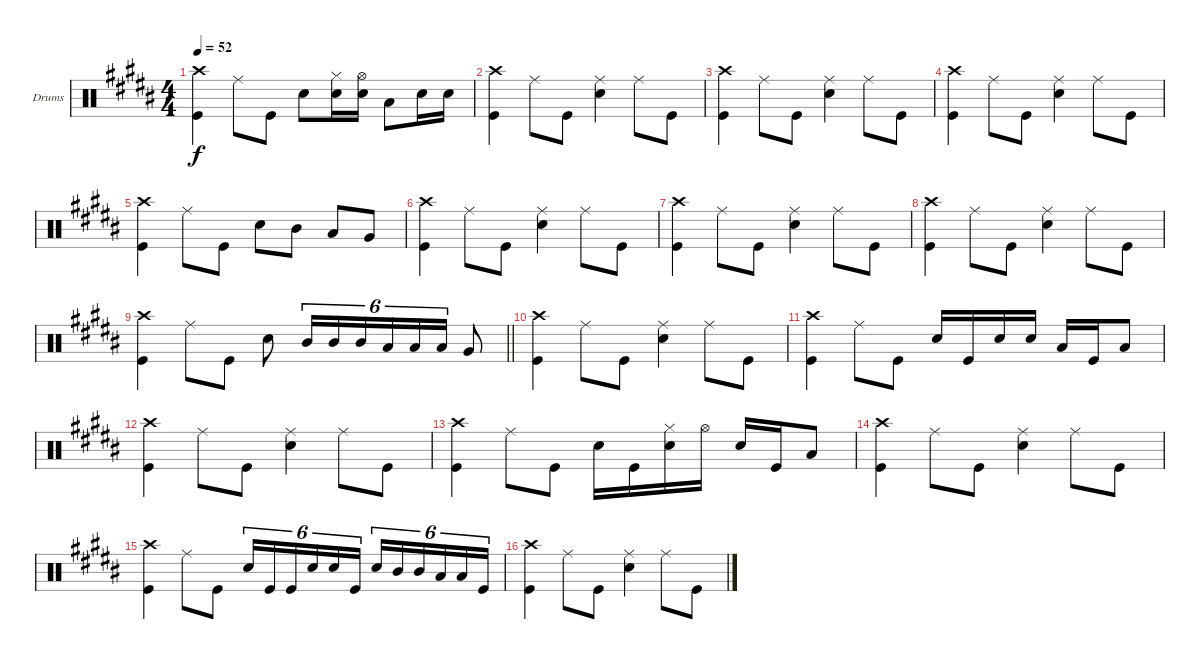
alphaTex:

\bracketExtendMode groupsimilarinstruments
\firstSystemTrackNameOrientation horizontal
\otherSystemsTrackNameOrientation horizontal
\track ("Drumkit" "Drums") {solo instrument percussion}
\staff {score}
\articulation defaults
\ts (4 4)
\tempo 52
\clef neutral
\ks g#minor
("Crash high (hit)" "Kick (hit)").4{dy f} "Ride (middle)".8 "Kick (hit)".8 "Snare (hit) 2".8 ("Hi-Hat (closed)" "Snare (hit) 2").16 ("Hi-Hat (open)" "Snare (hit) 2").16 "Low Tom (hit)".8 "Snare (hit) 2".16 "Snare (hit) 2".16 |
("Crash high (hit)" "Kick (hit)").4 "Ride (middle)".8 "Kick (hit)".8 ("Ride (middle)" "Snare (hit) 2").4 "Ride (middle)".8 "Kick (hit)".8 |
("Crash high (hit)" "Kick (hit)").4 "Ride (middle)".8 "Kick (hit)".8 ("Ride (middle)" "Snare (hit) 2").4 "Ride (middle)".8 "Kick (hit)".8 |
("Crash high (hit)" "Kick (hit)").4 "Ride (middle)".8 "Kick (hit)".8 ("Ride (middle)" "Snare (hit) 2").4 "Ride (middle)".8 "Kick (hit)".8 |
("Crash high (hit)" "Kick (hit)").4 "Ride (middle)".8 "Kick (hit)".8 "Snare (hit) 2".8 "Mid Tom (hit)".8 "Low Tom (hit)".8 "Very Low Tom (hit)".8 |
("Crash high (hit)" "Kick (hit)").4 "Ride (middle)".8 "Kick (hit)".8 ("Ride (middle)" "Snare (hit) 2").4 "Ride (middle)".8 "Kick (hit)".8 |
("Crash high (hit)" "Kick (hit)").4 "Ride (middle)".8 "Kick (hit)".8 ("Ride (middle)" "Snare (hit) 2").4 "Ride (middle)".8 "Kick (hit)".8 |
("Crash high (hit)" "Kick (hit)").4 "Ride (middle)".8 "Kick (hit)".8 ("Ride (middle)" "Snare (hit) 2").4 "Ride (middle)".8 "Kick (hit)".8 |
\barLineRight lightlight
("Crash high (hit)" "Kick (hit)").4 "Ride (middle)".8 "Kick (hit)".8 "Snare (hit) 2".8 "Mid Tom (hit)".16{tu (6 4)} "Mid Tom (hit)".16{tu (6 4)} "Mid Tom (hit)".16{tu (6 4)} "Low Tom (hit)".16{tu (6 4)} "Low Tom (hit)".16{tu (6 4)} "Low Tom (hit)".16{tu (6 4)} "Very Low Tom (hit)".8 |
("Crash high (hit)" "Kick (hit)").4 "Ride (middle)".8 "Kick (hit)".8 ("Ride (middle)" "Snare (hit) 2").4 "Ride (middle)".8 "Kick (hit)".8 |
("Crash high (hit)" "Kick (hit)").4 "Ride (middle)".8 "Kick (hit)".8 "Snare (hit) 2".16 "Kick (hit)".16 "Snare (hit) 2".16 "Snare (hit) 2".16 "Low Tom (hit)".16 "Kick (hit)".16 "Low Tom (hit)".8 |
("Crash high (hit)" "Kick (hit)").4 "Ride (middle)".8 "Kick (hit)".8 ("Ride (middle)" "Snare (hit) 2").4 "Ride (middle)".8 "Kick (hit)".8 |
("Crash high (hit)" "Kick (hit)").4 "Ride (middle)".8 "Kick (hit)".8 "Snare (hit) 2".16 "Kick (hit)".16 ("Hi-Hat (closed)" "Snare (hit) 2").16 "Hi-Hat (open)".16 "Snare (hit) 2".16 "Kick (hit)".16 "Low Tom (hit)".8 |
("Crash high (hit)" "Kick (hit)").4 "Ride (middle)".8 "Kick (hit)".8 ("Ride (middle)" "Snare (hit) 2").4 "Ride (middle)".8 "Kick (hit)".8 |
("Crash high (hit)" "Kick (hit)").4 "Ride (middle)".8 "Kick (hit)".8 "Snare (hit) 2".16{tu (6 4)} "Kick (hit)".16{tu (6 4)} "Kick (hit)".16{tu (6 4)} "Snare (hit) 2".16{tu (6 4)} "Snare (hit) 2".16{tu (6 4)} "Kick (hit)".16{tu (6 4)} "Snare (hit) 2".16{tu (6 4)} "Mid Tom (hit)".16{tu (6 4)} "Mid Tom (hit)".16{tu (6 4)} "Low Tom (hit)".16{tu (6 4)} "Low Tom (hit)".16{tu (6 4)} "Kick (hit)".16{tu (6 4)} |
("Crash high (hit)" "Kick (hit)").4 "Ride (middle)".8 "Kick (hit)".8 ("Ride (middle)" "Snare (hit) 2").4 "Ride (middle)".8 "Kick (hit)".8
